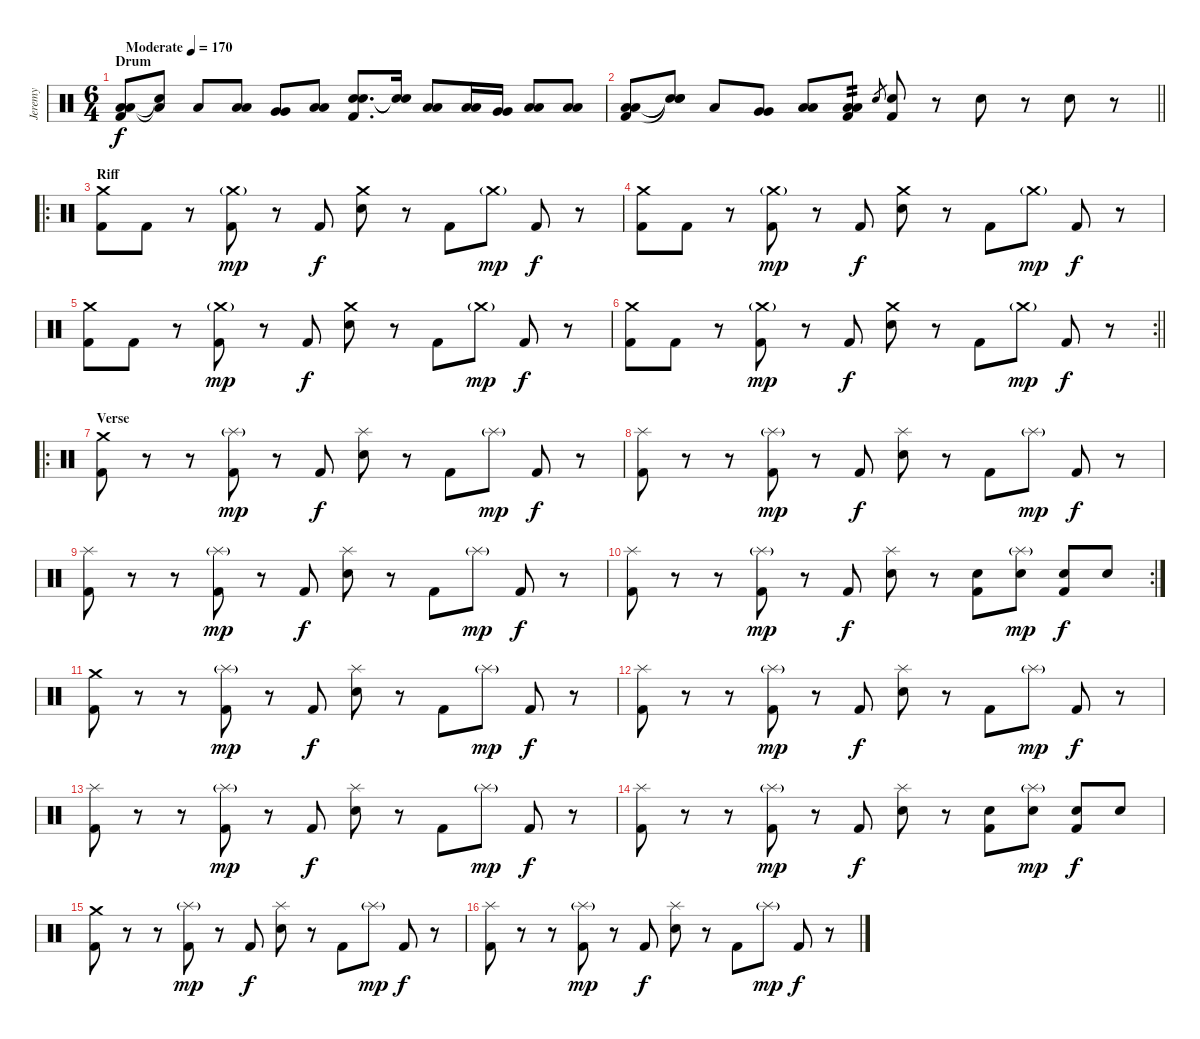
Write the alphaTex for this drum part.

\track ("Jeremy" "Jeremy") {instrument percussion}
\staff {score}
\articulation defaults
\ts (6 4)
\section ("" "Drum")
\tempo (170 "Moderate")
\clef neutral
\ks c
("Low Floor Tom (hit)" "Low Floor Tom (hit)" "Kick (hit) 2").8{dy f} ("Snare (hit)"{t} "Low Tom (hit)"{t}).8 "Low Floor Tom (hit)".8 ("Low Tom (hit)" "Low Tom (hit)").8 ("Very Low Tom (hit)" "Very Low Tom (hit)").8 ("Low Floor Tom (hit)" "Low Floor Tom (hit)").8 ("Snare (hit) 2" "Snare (hit) 2" "Kick (hit) 2").8{d} ("Snare (hit)"{t} "Snare (hit)"{t}).16 ("Low Floor Tom (hit)" "Low Floor Tom (hit)").8 ("Low Tom (hit)" "Low Tom (hit)").16 ("Very Low Tom (hit)" "Very Low Tom (hit)").16 ("Low Floor Tom (hit)" "Low Floor Tom (hit)").8 ("Low Floor Tom (hit)" "Low Floor Tom (hit)").8 |
\barLineRight lightlight
("Low Floor Tom (hit)" "Low Floor Tom (hit)" "Kick (hit) 2").8 ("Snare (hit)"{t} "Snare (hit)"{t} "Snare (hit)"{t}).8 "Low Tom (hit)".8 ("Very Low Tom (hit)" "Very Low Tom (hit)").8 ("Low Floor Tom (hit)" "Low Floor Tom (hit)").8 ("Low Floor Tom (hit)" "Low Floor Tom (hit)" "Kick (hit) 2").8{tp 2} "Snare (hit) 2".8{gr} ("Snare (hit) 2" "Kick (hit) 2").8 r.8 "Snare (hit) 2".8 r.8 "Snare (hit) 2".8 r.8 |
\ro
\section ("" "Riff")
("Crash medium (hit)" "Kick (hit) 2").8 "Kick (hit) 2".8 r.8 ("Crash medium (hit)"{g} "Kick (hit) 2").8{dy mp} r.8 "Kick (hit) 2".8{dy f} ("Crash medium (hit)" "Electric Snare (hit)").8 r.8 "Kick (hit) 2".8 "Crash medium (hit)"{g}.8{dy mp} "Kick (hit) 2".8{dy f} r.8 |
("Crash medium (hit)" "Kick (hit) 2").8 "Kick (hit) 2".8 r.8 ("Crash medium (hit)"{g} "Kick (hit) 2").8{dy mp} r.8 "Kick (hit) 2".8{dy f} ("Crash medium (hit)" "Electric Snare (hit)").8 r.8 "Kick (hit) 2".8 "Crash medium (hit)"{g}.8{dy mp} "Kick (hit) 2".8{dy f} r.8 |
("Crash medium (hit)" "Kick (hit) 2").8 "Kick (hit) 2".8 r.8 ("Crash medium (hit)"{g} "Kick (hit) 2").8{dy mp} r.8 "Kick (hit) 2".8{dy f} ("Crash medium (hit)" "Electric Snare (hit)").8 r.8 "Kick (hit) 2".8 "Crash medium (hit)"{g}.8{dy mp} "Kick (hit) 2".8{dy f} r.8 |
\rc 2
\barLineRight lightlight
("Crash medium (hit)" "Kick (hit) 2").8 "Kick (hit) 2".8 r.8 ("Crash medium (hit)"{g} "Kick (hit) 2").8{dy mp} r.8 "Kick (hit) 2".8{dy f} ("Crash medium (hit)" "Electric Snare (hit)").8 r.8 "Kick (hit) 2".8 "Crash medium (hit)"{g}.8{dy mp} "Kick (hit) 2".8{dy f} r.8 |
\ro
\section ("" "Verse")
("Crash medium (hit)" "Kick (hit) 2").8 r.8 r.8 ("Splash (hit)"{g} "Kick (hit) 2").8{dy mp} r.8 "Kick (hit) 2".8{dy f} ("Splash (hit)" "Electric Snare (hit)").8 r.8 "Kick (hit) 2".8 "Splash (hit)"{g}.8{dy mp} "Kick (hit) 2".8{dy f} r.8 |
("Splash (hit)" "Kick (hit) 2").8 r.8 r.8 ("Splash (hit)"{g} "Kick (hit) 2").8{dy mp} r.8 "Kick (hit) 2".8{dy f} ("Splash (hit)" "Electric Snare (hit)").8 r.8 "Kick (hit) 2".8 "Splash (hit)"{g}.8{dy mp} "Kick (hit) 2".8{dy f} r.8 |
("Splash (hit)" "Kick (hit) 2").8 r.8 r.8 ("Splash (hit)"{g} "Kick (hit) 2").8{dy mp} r.8 "Kick (hit) 2".8{dy f} ("Splash (hit)" "Electric Snare (hit)").8 r.8 "Kick (hit) 2".8 "Splash (hit)"{g}.8{dy mp} "Kick (hit) 2".8{dy f} r.8 |
\rc 2
("Splash (hit)" "Kick (hit) 2").8 r.8 r.8 ("Splash (hit)"{g} "Kick (hit) 2").8{dy mp} r.8 "Kick (hit) 2".8{dy f} ("Splash (hit)" "Electric Snare (hit)").8 r.8 ("Electric Snare (hit)" "Kick (hit) 2").8 ("Splash (hit)"{g} "Electric Snare (hit)").8{dy mp} ("Electric Snare (hit)" "Kick (hit) 2").8{dy f} "Electric Snare (hit)".8 |
("Crash medium (hit)" "Kick (hit) 2").8 r.8 r.8 ("Splash (hit)"{g} "Kick (hit) 2").8{dy mp} r.8 "Kick (hit) 2".8{dy f} ("Splash (hit)" "Electric Snare (hit)").8 r.8 "Kick (hit) 2".8 "Splash (hit)"{g}.8{dy mp} "Kick (hit) 2".8{dy f} r.8 |
("Splash (hit)" "Kick (hit) 2").8 r.8 r.8 ("Splash (hit)"{g} "Kick (hit) 2").8{dy mp} r.8 "Kick (hit) 2".8{dy f} ("Splash (hit)" "Electric Snare (hit)").8 r.8 "Kick (hit) 2".8 "Splash (hit)"{g}.8{dy mp} "Kick (hit) 2".8{dy f} r.8 |
("Splash (hit)" "Kick (hit) 2").8 r.8 r.8 ("Splash (hit)"{g} "Kick (hit) 2").8{dy mp} r.8 "Kick (hit) 2".8{dy f} ("Splash (hit)" "Electric Snare (hit)").8 r.8 "Kick (hit) 2".8 "Splash (hit)"{g}.8{dy mp} "Kick (hit) 2".8{dy f} r.8 |
("Splash (hit)" "Kick (hit) 2").8 r.8 r.8 ("Splash (hit)"{g} "Kick (hit) 2").8{dy mp} r.8 "Kick (hit) 2".8{dy f} ("Splash (hit)" "Electric Snare (hit)").8 r.8 ("Electric Snare (hit)" "Kick (hit) 2").8 ("Splash (hit)"{g} "Electric Snare (hit)").8{dy mp} ("Electric Snare (hit)" "Kick (hit) 2").8{dy f} "Electric Snare (hit)".8 |
("Crash medium (hit)" "Kick (hit) 2").8 r.8 r.8 ("Splash (hit)"{g} "Kick (hit) 2").8{dy mp} r.8 "Kick (hit) 2".8{dy f} ("Splash (hit)" "Electric Snare (hit)").8 r.8 "Kick (hit) 2".8 "Splash (hit)"{g}.8{dy mp} "Kick (hit) 2".8{dy f} r.8 |
("Splash (hit)" "Kick (hit) 2").8 r.8 r.8 ("Splash (hit)"{g} "Kick (hit) 2").8{dy mp} r.8 "Kick (hit) 2".8{dy f} ("Splash (hit)" "Electric Snare (hit)").8 r.8 "Kick (hit) 2".8 "Splash (hit)"{g}.8{dy mp} "Kick (hit) 2".8{dy f} r.8
